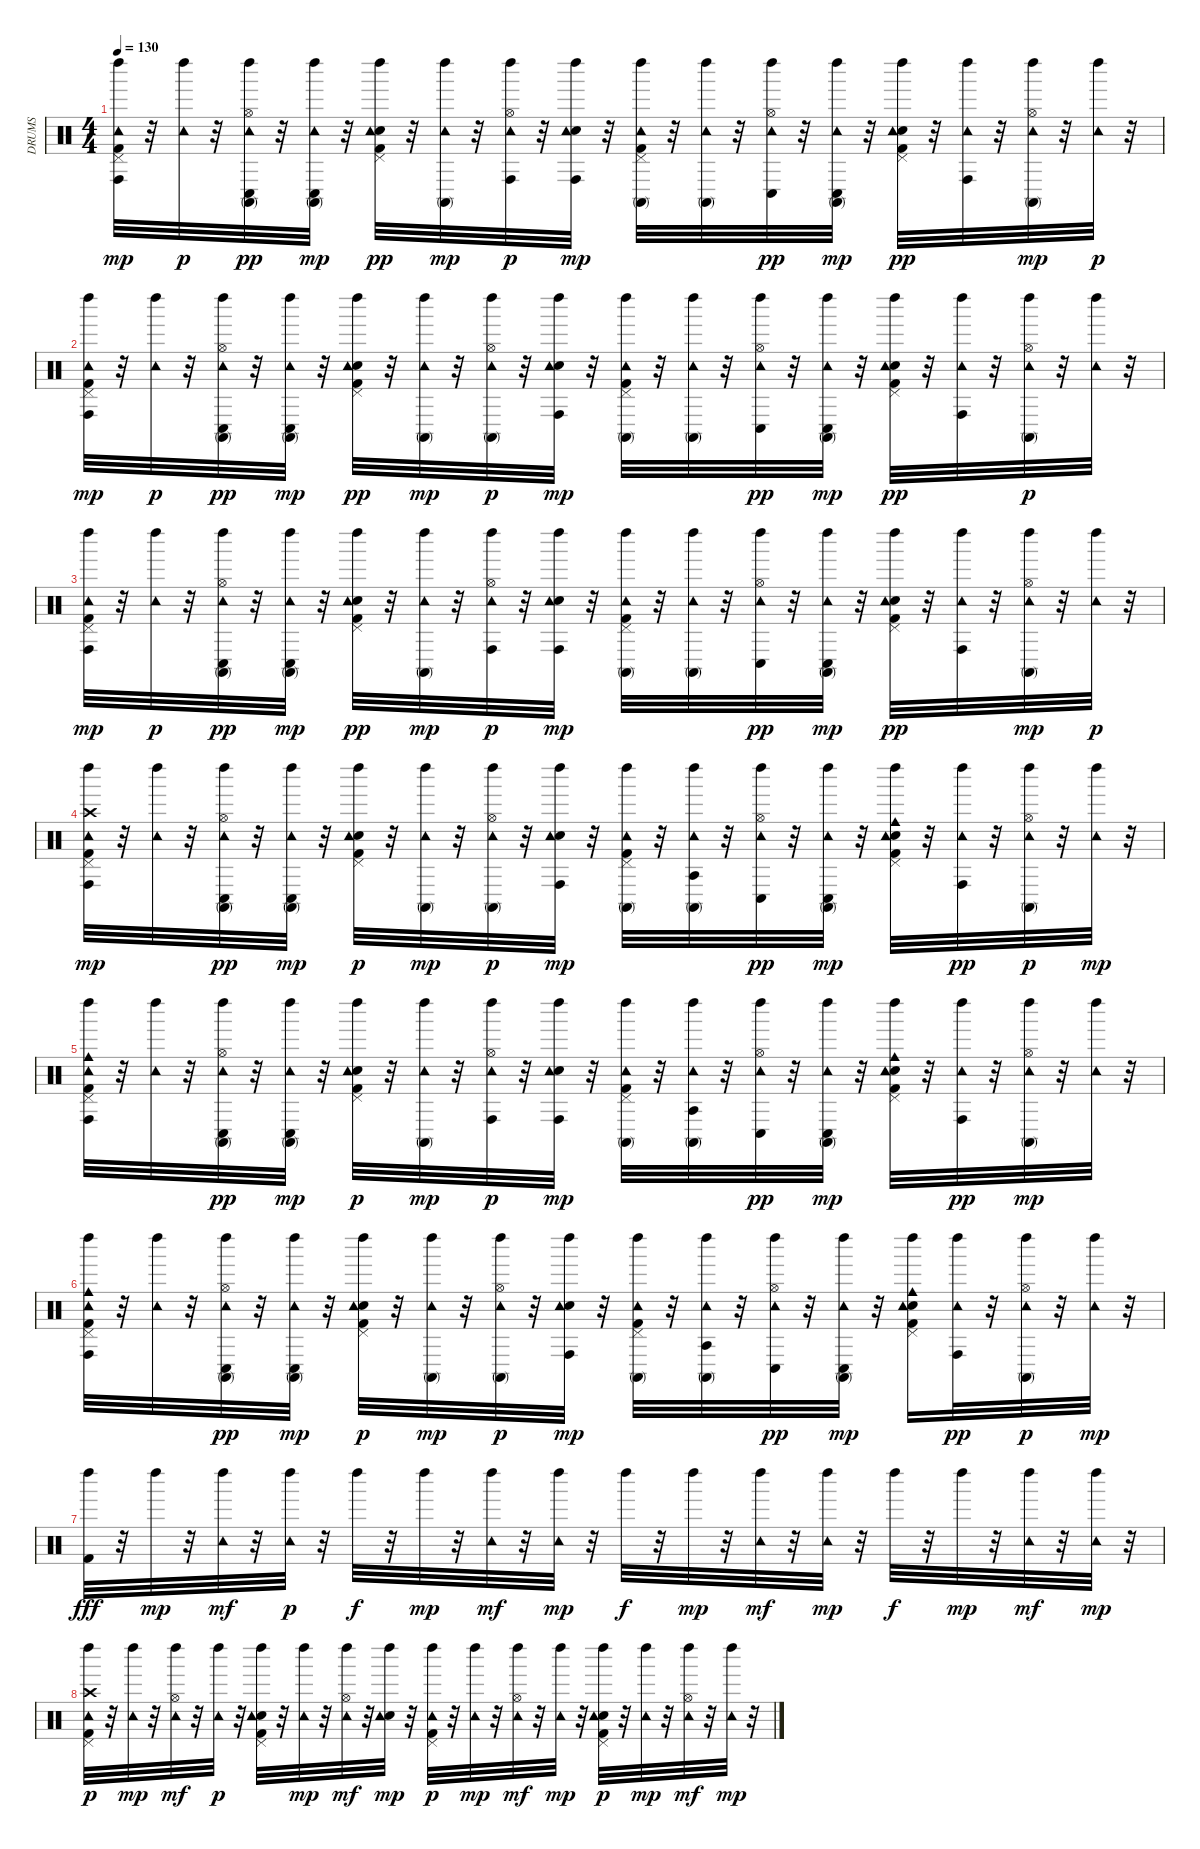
\track ("DRUMS" "DRUMS") {instrument percussion}
\staff {score}
\articulation defaults
\ts (4 4)
\tempo 130
\clef neutral
\ks c
("Kick (hit) 2" "Pedal Hi-Hat (hit)" "Left Maraca (hit)" "Tambourine (hit)" "Conga high (hit)").32{dy mp} r.32 ("Left Maraca (hit)" "Tambourine (hit)").32{dy p} r.32 ("Hi-Hat (open)" "Left Maraca (hit)" "Tambourine (hit)" "Conga high (mute)" "Conga low (hit)").32{dy pp} r.32 ("Left Maraca (hit)" "Tambourine (hit)" "Conga high (mute)" "Conga low (hit)").32{dy mp} r.32 ("Kick (hit) 2" "Electric Snare (hit)" "Pedal Hi-Hat (hit)" "Left Maraca (hit)" "Tambourine (hit)").32{dy pp} r.32 ("Left Maraca (hit)" "Tambourine (hit)" "Conga high (mute)").32{dy mp} r.32 ("Hi-Hat (open)" "Left Maraca (hit)" "Tambourine (hit)" "Conga high (hit)").32{dy p} r.32 ("Electric Snare (hit)" "Left Maraca (hit)" "Tambourine (hit)" "Conga high (hit)").32{dy mp} r.32 ("Kick (hit) 2" "Pedal Hi-Hat (hit)" "Left Maraca (hit)" "Tambourine (hit)" "Conga high (mute)").32 r.32 ("Left Maraca (hit)" "Tambourine (hit)" "Conga high (mute)").32 r.32 ("Hi-Hat (open)" "Left Maraca (hit)" "Tambourine (hit)" "Conga low (hit)").32{dy pp} r.32 ("Left Maraca (hit)" "Tambourine (hit)" "Conga high (mute)" "Conga low (hit)").32{dy mp} r.32 ("Kick (hit) 2" "Electric Snare (hit)" "Pedal Hi-Hat (hit)" "Left Maraca (hit)" "Tambourine (hit)").32{dy pp} r.32 ("Left Maraca (hit)" "Tambourine (hit)" "Conga high (hit)").32 r.32 ("Hi-Hat (open)" "Left Maraca (hit)" "Tambourine (hit)" "Conga high (mute)").32{dy mp} r.32 ("Left Maraca (hit)" "Tambourine (hit)").32{dy p} r.32 |
("Kick (hit) 2" "Pedal Hi-Hat (hit)" "Left Maraca (hit)" "Tambourine (hit)" "Conga high (hit)").32{dy mp} r.32 ("Left Maraca (hit)" "Tambourine (hit)").32{dy p} r.32 ("Hi-Hat (open)" "Left Maraca (hit)" "Tambourine (hit)" "Conga high (mute)" "Conga low (hit)").32{dy pp} r.32 ("Left Maraca (hit)" "Tambourine (hit)" "Conga high (mute)" "Conga low (hit)").32{dy mp} r.32 ("Kick (hit) 2" "Electric Snare (hit)" "Pedal Hi-Hat (hit)" "Left Maraca (hit)" "Tambourine (hit)").32{dy pp} r.32 ("Left Maraca (hit)" "Tambourine (hit)" "Conga high (mute)").32{dy mp} r.32 ("Hi-Hat (open)" "Left Maraca (hit)" "Tambourine (hit)" "Conga high (mute)").32{dy p} r.32 ("Electric Snare (hit)" "Left Maraca (hit)" "Tambourine (hit)" "Conga high (hit)").32{dy mp} r.32 ("Kick (hit) 2" "Pedal Hi-Hat (hit)" "Left Maraca (hit)" "Tambourine (hit)" "Conga high (mute)").32 r.32 ("Left Maraca (hit)" "Tambourine (hit)" "Conga high (mute)").32 r.32 ("Hi-Hat (open)" "Left Maraca (hit)" "Tambourine (hit)" "Conga low (hit)").32{dy pp} r.32 ("Left Maraca (hit)" "Tambourine (hit)" "Conga high (mute)" "Conga low (hit)").32{dy mp} r.32 ("Kick (hit) 2" "Electric Snare (hit)" "Pedal Hi-Hat (hit)" "Left Maraca (hit)" "Tambourine (hit)").32{dy pp} r.32 ("Left Maraca (hit)" "Tambourine (hit)" "Conga high (hit)").32 r.32 ("Hi-Hat (open)" "Left Maraca (hit)" "Tambourine (hit)" "Conga high (mute)").32{dy p} r.32 ("Left Maraca (hit)" "Tambourine (hit)").32 r.32 |
("Kick (hit) 2" "Pedal Hi-Hat (hit)" "Left Maraca (hit)" "Tambourine (hit)" "Conga high (hit)").32{dy mp} r.32 ("Left Maraca (hit)" "Tambourine (hit)").32{dy p} r.32 ("Hi-Hat (open)" "Left Maraca (hit)" "Tambourine (hit)" "Conga high (mute)" "Conga low (hit)").32{dy pp} r.32 ("Left Maraca (hit)" "Tambourine (hit)" "Conga high (mute)" "Conga low (hit)").32{dy mp} r.32 ("Kick (hit) 2" "Electric Snare (hit)" "Pedal Hi-Hat (hit)" "Left Maraca (hit)" "Tambourine (hit)").32{dy pp} r.32 ("Left Maraca (hit)" "Tambourine (hit)" "Conga high (mute)").32{dy mp} r.32 ("Hi-Hat (open)" "Left Maraca (hit)" "Tambourine (hit)" "Conga high (hit)").32{dy p} r.32 ("Electric Snare (hit)" "Left Maraca (hit)" "Tambourine (hit)" "Conga high (hit)").32{dy mp} r.32 ("Kick (hit) 2" "Pedal Hi-Hat (hit)" "Left Maraca (hit)" "Tambourine (hit)" "Conga high (mute)").32 r.32 ("Left Maraca (hit)" "Tambourine (hit)" "Conga high (mute)").32 r.32 ("Hi-Hat (open)" "Left Maraca (hit)" "Tambourine (hit)" "Conga low (hit)").32{dy pp} r.32 ("Left Maraca (hit)" "Tambourine (hit)" "Conga high (mute)" "Conga low (hit)").32{dy mp} r.32 ("Kick (hit) 2" "Electric Snare (hit)" "Pedal Hi-Hat (hit)" "Left Maraca (hit)" "Tambourine (hit)").32{dy pp} r.32 ("Left Maraca (hit)" "Tambourine (hit)" "Conga high (hit)").32 r.32 ("Hi-Hat (open)" "Left Maraca (hit)" "Tambourine (hit)" "Conga high (mute)").32{dy mp} r.32 ("Left Maraca (hit)" "Tambourine (hit)").32{dy p} r.32 |
("Kick (hit) 2" "Pedal Hi-Hat (hit)" "Left Maraca (hit)" "Crash high (hit)" "Tambourine (hit)" "Conga high (hit)").32{dy mp} r.32 ("Left Maraca (hit)" "Tambourine (hit)").32 r.32 ("Hi-Hat (open)" "Left Maraca (hit)" "Tambourine (hit)" "Conga high (mute)" "Conga low (hit)").32{dy pp} r.32 ("Left Maraca (hit)" "Tambourine (hit)" "Conga high (mute)" "Conga low (hit)").32{dy mp} r.32 ("Kick (hit) 2" "Electric Snare (hit)" "Pedal Hi-Hat (hit)" "Left Maraca (hit)" "Tambourine (hit)").32{dy p} r.32 ("Left Maraca (hit)" "Tambourine (hit)" "Conga high (mute)").32{dy mp} r.32 ("Hi-Hat (open)" "Left Maraca (hit)" "Tambourine (hit)" "Conga high (mute)").32{dy p} r.32 ("Electric Snare (hit)" "Left Maraca (hit)" "Tambourine (hit)" "Conga high (hit)").32{dy mp} r.32 ("Kick (hit) 2" "Pedal Hi-Hat (hit)" "Left Maraca (hit)" "Tambourine (hit)" "Conga high (mute)").32 r.32 ("Left Maraca (hit)" "Tambourine (hit)" "Conga high (mute)" "Agogo tow (hit)").32 r.32 ("Hi-Hat (open)" "Left Maraca (hit)" "Tambourine (hit)" "Conga low (hit)").32{dy pp} r.32 ("Left Maraca (hit)" "Tambourine (hit)" "Conga high (mute)" "Conga low (hit)").32{dy mp} r.32 ("Kick (hit) 2" "Electric Snare (hit)" "Pedal Hi-Hat (hit)" "Left Maraca (hit)" "Tambourine (hit)" "Cowbell medium (hit)").32 r.32 ("Left Maraca (hit)" "Tambourine (hit)" "Conga high (hit)").32{dy pp} r.32 ("Hi-Hat (open)" "Left Maraca (hit)" "Tambourine (hit)" "Conga high (mute)").32{dy p} r.32 ("Left Maraca (hit)" "Tambourine (hit)").32{dy mp} r.32 |
("Kick (hit) 2" "Pedal Hi-Hat (hit)" "Left Maraca (hit)" "Tambourine (hit)" "Conga high (hit)" "Cowbell medium (hit)").32 r.32 ("Left Maraca (hit)" "Tambourine (hit)").32 r.32 ("Hi-Hat (open)" "Left Maraca (hit)" "Tambourine (hit)" "Conga high (mute)" "Conga low (hit)").32{dy pp} r.32 ("Left Maraca (hit)" "Tambourine (hit)" "Conga high (mute)" "Conga low (hit)").32{dy mp} r.32 ("Kick (hit) 2" "Electric Snare (hit)" "Pedal Hi-Hat (hit)" "Left Maraca (hit)" "Tambourine (hit)").32{dy p} r.32 ("Left Maraca (hit)" "Tambourine (hit)" "Conga high (mute)").32{dy mp} r.32 ("Hi-Hat (open)" "Left Maraca (hit)" "Tambourine (hit)" "Conga high (hit)").32{dy p} r.32 ("Electric Snare (hit)" "Left Maraca (hit)" "Tambourine (hit)" "Conga high (hit)").32{dy mp} r.32 ("Kick (hit) 2" "Pedal Hi-Hat (hit)" "Left Maraca (hit)" "Tambourine (hit)" "Conga high (mute)").32 r.32 ("Left Maraca (hit)" "Tambourine (hit)" "Conga high (mute)" "Agogo tow (hit)").32 r.32 ("Hi-Hat (open)" "Left Maraca (hit)" "Tambourine (hit)" "Conga low (hit)").32{dy pp} r.32 ("Left Maraca (hit)" "Tambourine (hit)" "Conga high (mute)" "Conga low (hit)").32{dy mp} r.32 ("Kick (hit) 2" "Electric Snare (hit)" "Pedal Hi-Hat (hit)" "Left Maraca (hit)" "Tambourine (hit)" "Cowbell medium (hit)").32 r.32 ("Left Maraca (hit)" "Tambourine (hit)" "Conga high (hit)").32{dy pp} r.32 ("Hi-Hat (open)" "Left Maraca (hit)" "Tambourine (hit)" "Conga high (mute)").32{dy mp} r.32 ("Left Maraca (hit)" "Tambourine (hit)").32 r.32 |
("Kick (hit) 2" "Pedal Hi-Hat (hit)" "Left Maraca (hit)" "Tambourine (hit)" "Conga high (hit)" "Cowbell medium (hit)").32 r.32 ("Left Maraca (hit)" "Tambourine (hit)").32 r.32 ("Hi-Hat (open)" "Left Maraca (hit)" "Tambourine (hit)" "Conga high (mute)" "Conga low (hit)").32{dy pp} r.32 ("Left Maraca (hit)" "Tambourine (hit)" "Conga high (mute)" "Conga low (hit)").32{dy mp} r.32 ("Kick (hit) 2" "Electric Snare (hit)" "Pedal Hi-Hat (hit)" "Left Maraca (hit)" "Tambourine (hit)").32{dy p} r.32 ("Left Maraca (hit)" "Tambourine (hit)" "Conga high (mute)").32{dy mp} r.32 ("Hi-Hat (open)" "Left Maraca (hit)" "Tambourine (hit)" "Conga high (mute)").32{dy p} r.32 ("Electric Snare (hit)" "Left Maraca (hit)" "Tambourine (hit)" "Conga high (hit)").32{dy mp} r.32 ("Kick (hit) 2" "Pedal Hi-Hat (hit)" "Left Maraca (hit)" "Tambourine (hit)" "Conga high (mute)").32 r.32 ("Left Maraca (hit)" "Tambourine (hit)" "Conga high (mute)" "Agogo tow (hit)").32 r.32 ("Hi-Hat (open)" "Left Maraca (hit)" "Tambourine (hit)" "Conga low (hit)").32{dy pp} r.32 ("Left Maraca (hit)" "Tambourine (hit)" "Conga high (mute)" "Conga low (hit)").32{dy mp} r.32 ("Kick (hit) 2" "Electric Snare (hit)" "Pedal Hi-Hat (hit)" "Left Maraca (hit)" "Tambourine (hit)" "Cowbell medium (hit)").16 ("Left Maraca (hit)" "Tambourine (hit)" "Conga high (hit)").32{dy pp} r.32 ("Hi-Hat (open)" "Left Maraca (hit)" "Tambourine (hit)" "Conga high (mute)").32{dy p} r.32 ("Left Maraca (hit)" "Tambourine (hit)").32{dy mp} r.32 |
("Kick (hit) 2" "Left Maraca (hit)").32{dy fff} r.32 "Left Maraca (hit)".32{dy mp} r.32 ("Left Maraca (hit)" "Tambourine (hit)").32{dy mf} r.32 ("Left Maraca (hit)" "Tambourine (hit)").32{dy p} r.32 "Left Maraca (hit)".32{dy f} r.32 "Left Maraca (hit)".32{dy mp} r.32 ("Left Maraca (hit)" "Tambourine (hit)").32{dy mf} r.32 ("Left Maraca (hit)" "Tambourine (hit)").32{dy mp} r.32 "Left Maraca (hit)".32{dy f} r.32 "Left Maraca (hit)".32{dy mp} r.32 ("Left Maraca (hit)" "Tambourine (hit)").32{dy mf} r.32 ("Left Maraca (hit)" "Tambourine (hit)").32{dy mp} r.32 "Left Maraca (hit)".32{dy f} r.32 "Left Maraca (hit)".32{dy mp} r.32 ("Left Maraca (hit)" "Tambourine (hit)").32{dy mf} r.32 ("Left Maraca (hit)" "Tambourine (hit)").32{dy mp} r.32 |
("Kick (hit) 2" "Pedal Hi-Hat (hit)" "Left Maraca (hit)" "Crash high (hit)" "Tambourine (hit)").32{dy p} r.32 ("Left Maraca (hit)" "Tambourine (hit)").32{dy mp} r.32 ("Hi-Hat (open)" "Left Maraca (hit)" "Tambourine (hit)").32{dy mf} r.32 ("Left Maraca (hit)" "Tambourine (hit)").32{dy p} r.32 ("Kick (hit) 2" "Electric Snare (hit)" "Pedal Hi-Hat (hit)" "Left Maraca (hit)" "Tambourine (hit)").32 r.32 ("Left Maraca (hit)" "Tambourine (hit)").32{dy mp} r.32 ("Hi-Hat (open)" "Left Maraca (hit)" "Tambourine (hit)").32{dy mf} r.32 ("Electric Snare (hit)" "Left Maraca (hit)" "Tambourine (hit)").32{dy mp} r.32 ("Kick (hit) 2" "Pedal Hi-Hat (hit)" "Left Maraca (hit)" "Tambourine (hit)").32{dy p} r.32 ("Left Maraca (hit)" "Tambourine (hit)").32{dy mp} r.32 ("Hi-Hat (open)" "Left Maraca (hit)" "Tambourine (hit)").32{dy mf} r.32 ("Left Maraca (hit)" "Tambourine (hit)").32{dy mp} r.32 ("Kick (hit) 2" "Electric Snare (hit)" "Pedal Hi-Hat (hit)" "Left Maraca (hit)" "Tambourine (hit)").32{dy p} r.32 ("Left Maraca (hit)" "Tambourine (hit)").32{dy mp} r.32 ("Hi-Hat (open)" "Left Maraca (hit)" "Tambourine (hit)").32{dy mf} r.32 ("Left Maraca (hit)" "Tambourine (hit)").32{dy mp} r.32
